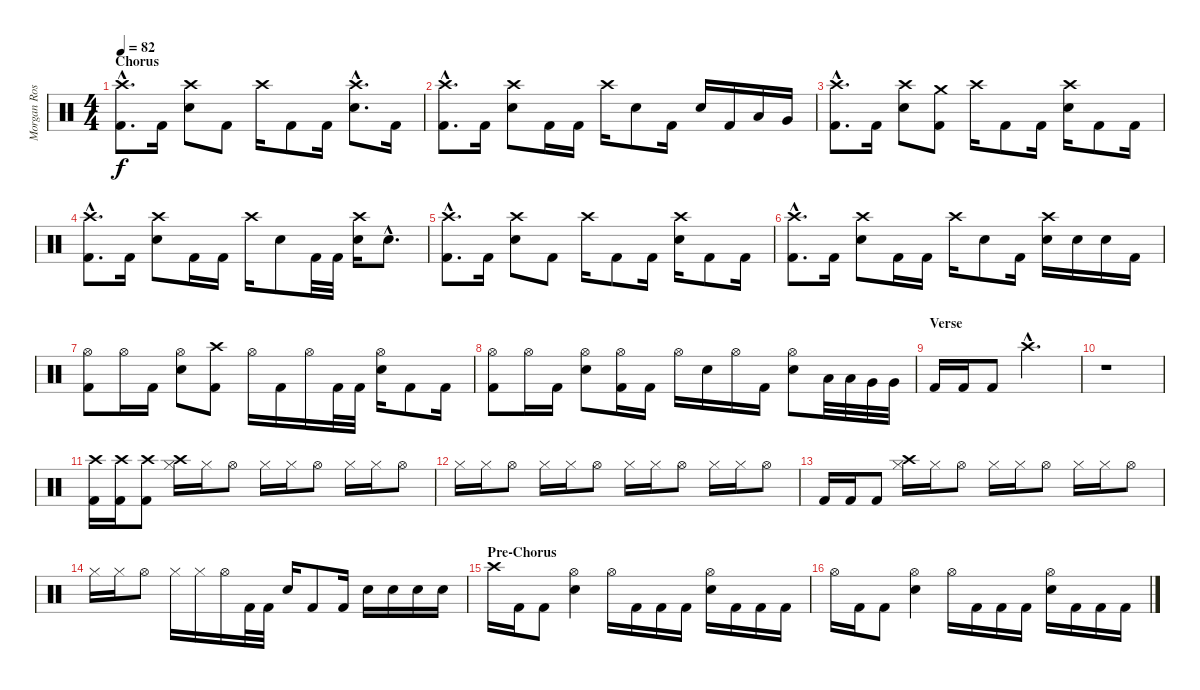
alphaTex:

\track ("Morgan Rose" "Morgan Ros") {instrument percussion}
\staff {score}
\articulation defaults
\ts (4 4)
\section ("" "Chorus")
\tempo 82
\clef neutral
\ks c
("Crash high (hit)"{hac} "Kick (hit) 2"{hac}).8{d dy f} "Kick (hit) 2".16 ("Crash high (hit)" "Electric Snare (hit)").8 "Kick (hit) 2".8 "Crash high (hit)".16 "Kick (hit) 2".8 "Kick (hit) 2".16 ("Crash high (hit)"{hac} "Electric Snare (hit)"{hac}).8{d} "Kick (hit) 2".16 |
("Crash high (hit)"{hac} "Kick (hit) 2"{hac}).8{d} "Kick (hit) 2".16 ("Crash high (hit)" "Electric Snare (hit)").8 "Kick (hit) 2".16 "Kick (hit) 2".16 "Crash high (hit)".16 "Electric Snare (hit)".8 "Kick (hit) 2".16 "Electric Snare (hit)".16 "Kick (hit) 2".16 "Low Tom (hit)".16 "Very Low Tom (hit)".16 |
("Crash high (hit)"{hac} "Kick (hit) 2"{hac}).8{d} "Kick (hit) 2".16 ("Crash high (hit)" "Electric Snare (hit)").8 ("Crash medium (hit)" "Kick (hit) 2").8 "Crash high (hit)".16 "Kick (hit) 2".8 "Kick (hit) 2".16 ("Crash high (hit)" "Electric Snare (hit)").16 "Kick (hit) 2".8 "Kick (hit) 2".16 |
("Crash high (hit)"{hac} "Kick (hit) 2"{hac}).8{d} "Kick (hit) 2".16 ("Crash high (hit)" "Electric Snare (hit)").8 "Kick (hit) 2".16 "Kick (hit) 2".16 "Crash high (hit)".16 "Electric Snare (hit)".8 "Kick (hit) 2".32 "Kick (hit) 2".32 ("Crash high (hit)" "Electric Snare (hit)").16 "Electric Snare (hit)"{hac}.8{d} |
("Crash high (hit)"{hac} "Kick (hit) 2"{hac}).8{d} "Kick (hit) 2".16 ("Crash high (hit)" "Electric Snare (hit)").8 "Kick (hit) 2".8 "Crash high (hit)".16 "Kick (hit) 2".8 "Kick (hit) 2".16 ("Crash high (hit)" "Electric Snare (hit)").16 "Kick (hit) 2".8 "Kick (hit) 2".16 |
("Crash high (hit)"{hac} "Kick (hit) 2"{hac}).8{d} "Kick (hit) 2".16 ("Crash high (hit)" "Electric Snare (hit)").8 "Kick (hit) 2".16 "Kick (hit) 2".16 "Crash high (hit)".16 "Electric Snare (hit)".8 "Kick (hit) 2".16 ("Crash high (hit)" "Electric Snare (hit)").16 "Electric Snare (hit)".16 "Electric Snare (hit)".16 "Kick (hit) 2".16 |
("Hi-Hat (open)" "Kick (hit) 2").8 "Hi-Hat (open)".16 "Kick (hit) 2".16 ("Hi-Hat (open)" "Electric Snare (hit)").8 ("Crash high (hit)" "Kick (hit) 2").8 "Hi-Hat (open)".16 "Kick (hit) 2".16 "Hi-Hat (open)".16 "Kick (hit) 2".32 "Kick (hit) 2".32 ("Hi-Hat (open)" "Electric Snare (hit)").16 "Kick (hit) 2".8 "Kick (hit) 2".16 |
("Hi-Hat (open)" "Kick (hit) 2").8 "Hi-Hat (open)".16 "Kick (hit) 2".16 ("Hi-Hat (open)" "Electric Snare (hit)").8 ("Hi-Hat (open)" "Kick (hit) 2").16 "Kick (hit) 2".16 "Hi-Hat (open)".16 "Electric Snare (hit)".16 "Hi-Hat (open)".16 "Kick (hit) 2".16 ("Hi-Hat (open)" "Electric Snare (hit)").8 "Low Tom (hit)".32 "Low Tom (hit)".32 "Very Low Tom (hit)".32 "Very Low Tom (hit)".32 |
\section ("" "Verse")
"Kick (hit) 2".16 "Kick (hit) 2".16 "Kick (hit) 2".8 "Crash high (hit)"{hac}.2{d} |
r.1 |
("Crash high (hit)" "Kick (hit) 2").16 ("Crash high (hit)" "Kick (hit) 2").16 ("Crash high (hit)" "Kick (hit) 2").8 ("Crash high (hit)" "Hi-Hat (closed)").16 "Hi-Hat (closed)".16 "Hi-Hat (open)".8 "Hi-Hat (closed)".16 "Hi-Hat (closed)".16 "Hi-Hat (open)".8 "Hi-Hat (closed)".16 "Hi-Hat (closed)".16 "Hi-Hat (open)".8 |
"Hi-Hat (closed)".16 "Hi-Hat (closed)".16 "Hi-Hat (open)".8 "Hi-Hat (closed)".16 "Hi-Hat (closed)".16 "Hi-Hat (open)".8 "Hi-Hat (closed)".16 "Hi-Hat (closed)".16 "Hi-Hat (open)".8 "Hi-Hat (closed)".16 "Hi-Hat (closed)".16 "Hi-Hat (open)".8 |
"Kick (hit) 2".16 "Kick (hit) 2".16 "Kick (hit) 2".8 ("Crash high (hit)" "Hi-Hat (closed)").16 "Hi-Hat (closed)".16 "Hi-Hat (open)".8 "Hi-Hat (closed)".16 "Hi-Hat (closed)".16 "Hi-Hat (open)".8 "Hi-Hat (closed)".16 "Hi-Hat (closed)".16 "Hi-Hat (open)".8 |
"Hi-Hat (closed)".16 "Hi-Hat (closed)".16 "Hi-Hat (open)".8 "Hi-Hat (closed)".16 "Hi-Hat (closed)".16 "Hi-Hat (open)".16 "Kick (hit) 2".32 "Kick (hit) 2".32 "Electric Snare (hit)".16 "Kick (hit) 2".8 "Kick (hit) 2".16 "Electric Snare (hit)".16 "Electric Snare (hit)".16 "Electric Snare (hit)".16 "Electric Snare (hit)".16 |
\section ("" "Pre-Chorus")
"Crash high (hit)".16 "Kick (hit) 2".16 "Kick (hit) 2".8 ("Hi-Hat (open)" "Electric Snare (hit)").4 "Hi-Hat (open)".16 "Kick (hit) 2".16 "Kick (hit) 2".16 "Kick (hit) 2".16 ("Hi-Hat (open)" "Electric Snare (hit)").16 "Kick (hit) 2".16 "Kick (hit) 2".16 "Kick (hit) 2".16 |
"Hi-Hat (open)".16 "Kick (hit) 2".16 "Kick (hit) 2".8 ("Hi-Hat (open)" "Electric Snare (hit)").4 "Hi-Hat (open)".16 "Kick (hit) 2".16 "Kick (hit) 2".16 "Kick (hit) 2".16 ("Hi-Hat (open)" "Electric Snare (hit)").16 "Kick (hit) 2".16 "Kick (hit) 2".16 "Kick (hit) 2".16
